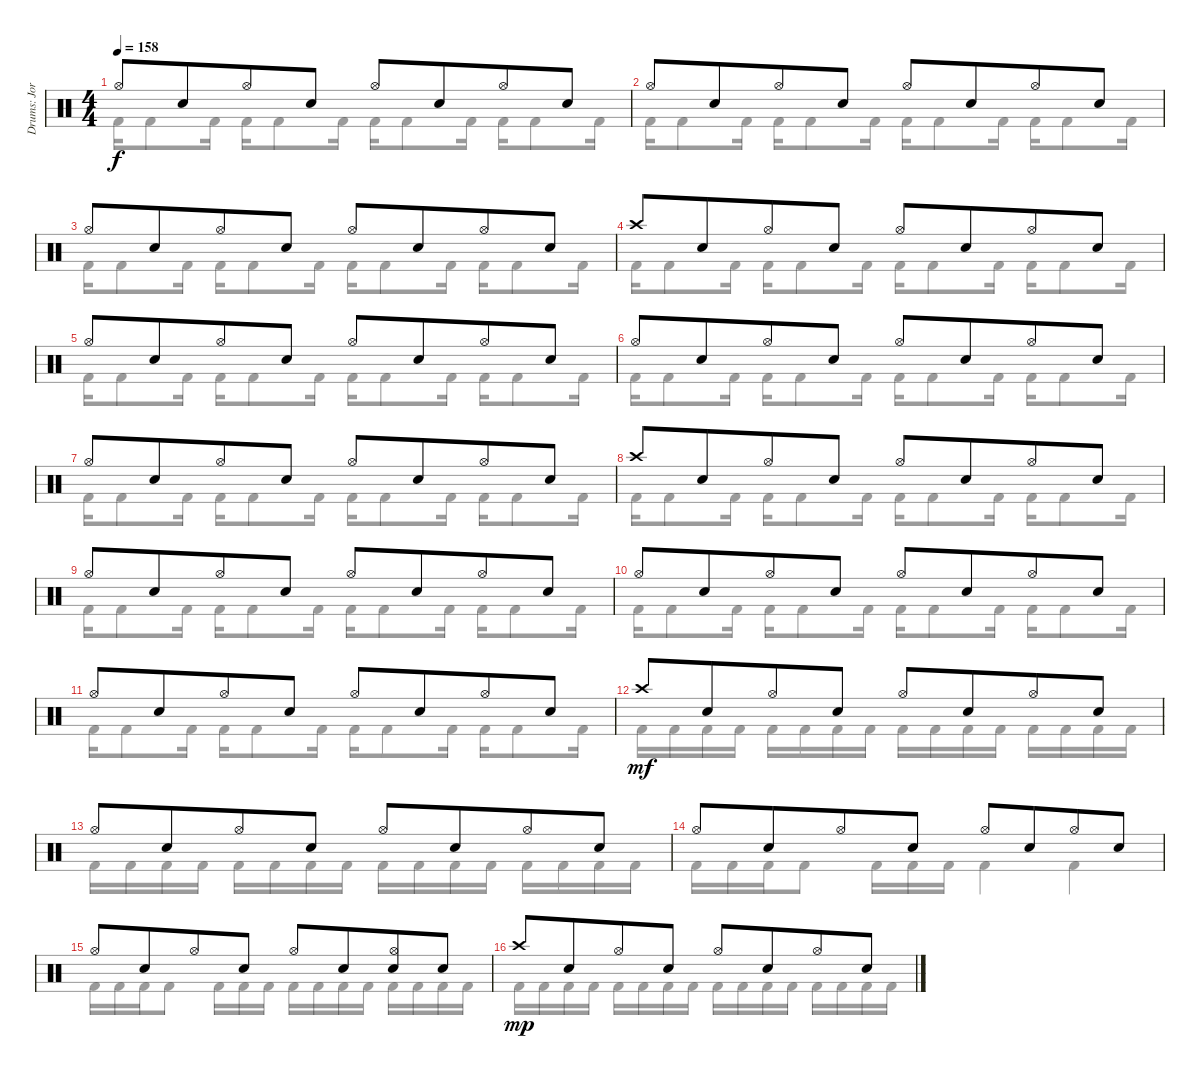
\track ("Drums: Jorg" "Drums: Jor") {instrument percussion}
\staff {score}
\articulation defaults
\voice
\ts (4 4)
\tempo 158
\clef neutral
\ks c "Hi-Hat (open)".8{dy f} "Snare (hit) 2".8{beam merge} "Hi-Hat (open)".8 "Snare (hit) 2".8 "Hi-Hat (open)".8 "Snare (hit) 2".8{beam merge} "Hi-Hat (open)".8 "Snare (hit) 2".8
|
"Hi-Hat (open)".8 "Snare (hit) 2".8{beam merge} "Hi-Hat (open)".8 "Snare (hit) 2".8 "Hi-Hat (open)".8 "Snare (hit) 2".8{beam merge} "Hi-Hat (open)".8 "Snare (hit) 2".8 |
"Hi-Hat (open)".8 "Snare (hit) 2".8{beam merge} "Hi-Hat (open)".8 "Snare (hit) 2".8 "Hi-Hat (open)".8 "Snare (hit) 2".8{beam merge} "Hi-Hat (open)".8 "Snare (hit) 2".8 |
"Crash high (hit)".8 "Snare (hit) 2".8{beam merge} "Hi-Hat (open)".8 "Snare (hit) 2".8 "Hi-Hat (open)".8 "Snare (hit) 2".8{beam merge} "Hi-Hat (open)".8 "Snare (hit) 2".8 |
"Hi-Hat (open)".8 "Snare (hit) 2".8{beam merge} "Hi-Hat (open)".8 "Snare (hit) 2".8 "Hi-Hat (open)".8 "Snare (hit) 2".8{beam merge} "Hi-Hat (open)".8 "Snare (hit) 2".8 |
"Hi-Hat (open)".8 "Snare (hit) 2".8{beam merge} "Hi-Hat (open)".8 "Snare (hit) 2".8 "Hi-Hat (open)".8 "Snare (hit) 2".8{beam merge} "Hi-Hat (open)".8 "Snare (hit) 2".8 |
"Hi-Hat (open)".8 "Snare (hit) 2".8{beam merge} "Hi-Hat (open)".8 "Snare (hit) 2".8 "Hi-Hat (open)".8 "Snare (hit) 2".8{beam merge} "Hi-Hat (open)".8 "Snare (hit) 2".8 |
"Crash high (hit)".8 "Snare (hit) 2".8{beam merge} "Hi-Hat (open)".8 "Snare (hit) 2".8 "Hi-Hat (open)".8 "Snare (hit) 2".8{beam merge} "Hi-Hat (open)".8 "Snare (hit) 2".8 |
"Hi-Hat (open)".8 "Snare (hit) 2".8{beam merge} "Hi-Hat (open)".8 "Snare (hit) 2".8 "Hi-Hat (open)".8 "Snare (hit) 2".8{beam merge} "Hi-Hat (open)".8 "Snare (hit) 2".8 |
"Hi-Hat (open)".8 "Snare (hit) 2".8{beam merge} "Hi-Hat (open)".8 "Snare (hit) 2".8 "Hi-Hat (open)".8 "Snare (hit) 2".8{beam merge} "Hi-Hat (open)".8 "Snare (hit) 2".8 |
"Hi-Hat (open)".8 "Snare (hit) 2".8{beam merge} "Hi-Hat (open)".8 "Snare (hit) 2".8 "Hi-Hat (open)".8 "Snare (hit) 2".8{beam merge} "Hi-Hat (open)".8 "Snare (hit) 2".8 |
"Crash high (hit)".8{dy mf volume 8} "Snare (hit) 2".8{beam merge} "Hi-Hat (open)".8 "Snare (hit) 2".8 "Hi-Hat (open)".8 "Snare (hit) 2".8{beam merge} "Hi-Hat (open)".8 "Snare (hit) 2".8 |
"Hi-Hat (open)".8 "Snare (hit) 2".8{beam merge} "Hi-Hat (open)".8 "Snare (hit) 2".8 "Hi-Hat (open)".8 "Snare (hit) 2".8{beam merge} "Hi-Hat (open)".8 "Snare (hit) 2".8 |
"Hi-Hat (open)".8 "Snare (hit) 2".8{beam merge} "Hi-Hat (open)".8 "Snare (hit) 2".8 "Hi-Hat (open)".8 "Snare (hit) 2".8{beam merge} "Hi-Hat (open)".8 "Snare (hit) 2".8 |
"Hi-Hat (open)".8 "Snare (hit) 2".8{beam merge} "Hi-Hat (open)".8 "Snare (hit) 2".8 "Hi-Hat (open)".8 "Snare (hit) 2".8{beam merge} ("Hi-Hat (open)" "Snare (hit) 2").8 "Snare (hit) 2".8 |
"Crash high (hit)".8{dy mp volume 0} "Snare (hit) 2".8{beam merge} "Hi-Hat (open)".8 "Snare (hit) 2".8 "Hi-Hat (open)".8 "Snare (hit) 2".8{beam merge} "Hi-Hat (open)".8 "Snare (hit) 2".8
\voice
\clef neutral
\ottava regular
\simile none
\ks c "Kick (hit) 2".16{dy f} "Kick (hit) 2".8 "Kick (hit) 2".16 "Kick (hit) 2".16 "Kick (hit) 2".8 "Kick (hit) 2".16 "Kick (hit) 2".16 "Kick (hit) 2".8 "Kick (hit) 2".16 "Kick (hit) 2".16 "Kick (hit) 2".8 "Kick (hit) 2".16
|
"Kick (hit) 2".16 "Kick (hit) 2".8 "Kick (hit) 2".16 "Kick (hit) 2".16 "Kick (hit) 2".8 "Kick (hit) 2".16 "Kick (hit) 2".16 "Kick (hit) 2".8 "Kick (hit) 2".16 "Kick (hit) 2".16 "Kick (hit) 2".8 "Kick (hit) 2".16 |
"Kick (hit) 2".16 "Kick (hit) 2".8 "Kick (hit) 2".16 "Kick (hit) 2".16 "Kick (hit) 2".8 "Kick (hit) 2".16 "Kick (hit) 2".16 "Kick (hit) 2".8 "Kick (hit) 2".16 "Kick (hit) 2".16 "Kick (hit) 2".8 "Kick (hit) 2".16 |
"Kick (hit) 2".16 "Kick (hit) 2".8 "Kick (hit) 2".16 "Kick (hit) 2".16 "Kick (hit) 2".8 "Kick (hit) 2".16 "Kick (hit) 2".16 "Kick (hit) 2".8 "Kick (hit) 2".16 "Kick (hit) 2".16 "Kick (hit) 2".8 "Kick (hit) 2".16 |
"Kick (hit) 2".16 "Kick (hit) 2".8 "Kick (hit) 2".16 "Kick (hit) 2".16 "Kick (hit) 2".8 "Kick (hit) 2".16 "Kick (hit) 2".16 "Kick (hit) 2".8 "Kick (hit) 2".16 "Kick (hit) 2".16 "Kick (hit) 2".8 "Kick (hit) 2".16 |
"Kick (hit) 2".16 "Kick (hit) 2".8 "Kick (hit) 2".16 "Kick (hit) 2".16 "Kick (hit) 2".8 "Kick (hit) 2".16 "Kick (hit) 2".16 "Kick (hit) 2".8 "Kick (hit) 2".16 "Kick (hit) 2".16 "Kick (hit) 2".8 "Kick (hit) 2".16 |
"Kick (hit) 2".16 "Kick (hit) 2".8 "Kick (hit) 2".16 "Kick (hit) 2".16 "Kick (hit) 2".8 "Kick (hit) 2".16 "Kick (hit) 2".16 "Kick (hit) 2".8 "Kick (hit) 2".16 "Kick (hit) 2".16 "Kick (hit) 2".8 "Kick (hit) 2".16 |
"Kick (hit) 2".16 "Kick (hit) 2".8 "Kick (hit) 2".16 "Kick (hit) 2".16 "Kick (hit) 2".8 "Kick (hit) 2".16 "Kick (hit) 2".16 "Kick (hit) 2".8 "Kick (hit) 2".16 "Kick (hit) 2".16 "Kick (hit) 2".8 "Kick (hit) 2".16 |
"Kick (hit) 2".16 "Kick (hit) 2".8 "Kick (hit) 2".16 "Kick (hit) 2".16 "Kick (hit) 2".8 "Kick (hit) 2".16 "Kick (hit) 2".16 "Kick (hit) 2".8 "Kick (hit) 2".16 "Kick (hit) 2".16 "Kick (hit) 2".8 "Kick (hit) 2".16 |
"Kick (hit) 2".16 "Kick (hit) 2".8 "Kick (hit) 2".16 "Kick (hit) 2".16 "Kick (hit) 2".8 "Kick (hit) 2".16 "Kick (hit) 2".16 "Kick (hit) 2".8 "Kick (hit) 2".16 "Kick (hit) 2".16 "Kick (hit) 2".8 "Kick (hit) 2".16 |
"Kick (hit) 2".16 "Kick (hit) 2".8 "Kick (hit) 2".16 "Kick (hit) 2".16 "Kick (hit) 2".8 "Kick (hit) 2".16 "Kick (hit) 2".16 "Kick (hit) 2".8 "Kick (hit) 2".16 "Kick (hit) 2".16 "Kick (hit) 2".8 "Kick (hit) 2".16 |
"Kick (hit) 2".16 "Kick (hit) 2".16 "Kick (hit) 2".16 "Kick (hit) 2".16 "Kick (hit) 2".16 "Kick (hit) 2".16 "Kick (hit) 2".16 "Kick (hit) 2".16 "Kick (hit) 2".16 "Kick (hit) 2".16 "Kick (hit) 2".16 "Kick (hit) 2".16 "Kick (hit) 2".16 "Kick (hit) 2".16 "Kick (hit) 2".16 "Kick (hit) 2".16 |
"Kick (hit) 2".16 "Kick (hit) 2".16 "Kick (hit) 2".16 "Kick (hit) 2".16 "Kick (hit) 2".16 "Kick (hit) 2".16 "Kick (hit) 2".16 "Kick (hit) 2".16 "Kick (hit) 2".16 "Kick (hit) 2".16 "Kick (hit) 2".16 "Kick (hit) 2".16 "Kick (hit) 2".16 "Kick (hit) 2".16 "Kick (hit) 2".16 "Kick (hit) 2".16 |
"Kick (hit) 2".16 "Kick (hit) 2".16 "Kick (hit) 2".16 "Kick (hit) 2".8 "Kick (hit) 2".16 "Kick (hit) 2".16 "Kick (hit) 2".16 "Kick (hit) 2".4 "Kick (hit) 2".4 |
"Kick (hit) 2".16 "Kick (hit) 2".16 "Kick (hit) 2".16 "Kick (hit) 2".8 "Kick (hit) 2".16 "Kick (hit) 2".16 "Kick (hit) 2".16 "Kick (hit) 2".16 "Kick (hit) 2".16 "Kick (hit) 2".16 "Kick (hit) 2".16 "Kick (hit) 2".16 "Kick (hit) 2".16 "Kick (hit) 2".16 "Kick (hit) 2".16 |
"Kick (hit) 2".16{dy mp} "Kick (hit) 2".16 "Kick (hit) 2".16 "Kick (hit) 2".16 "Kick (hit) 2".16 "Kick (hit) 2".16 "Kick (hit) 2".16 "Kick (hit) 2".16 "Kick (hit) 2".16 "Kick (hit) 2".16 "Kick (hit) 2".16 "Kick (hit) 2".16 "Kick (hit) 2".16 "Kick (hit) 2".16 "Kick (hit) 2".16 "Kick (hit) 2".16
